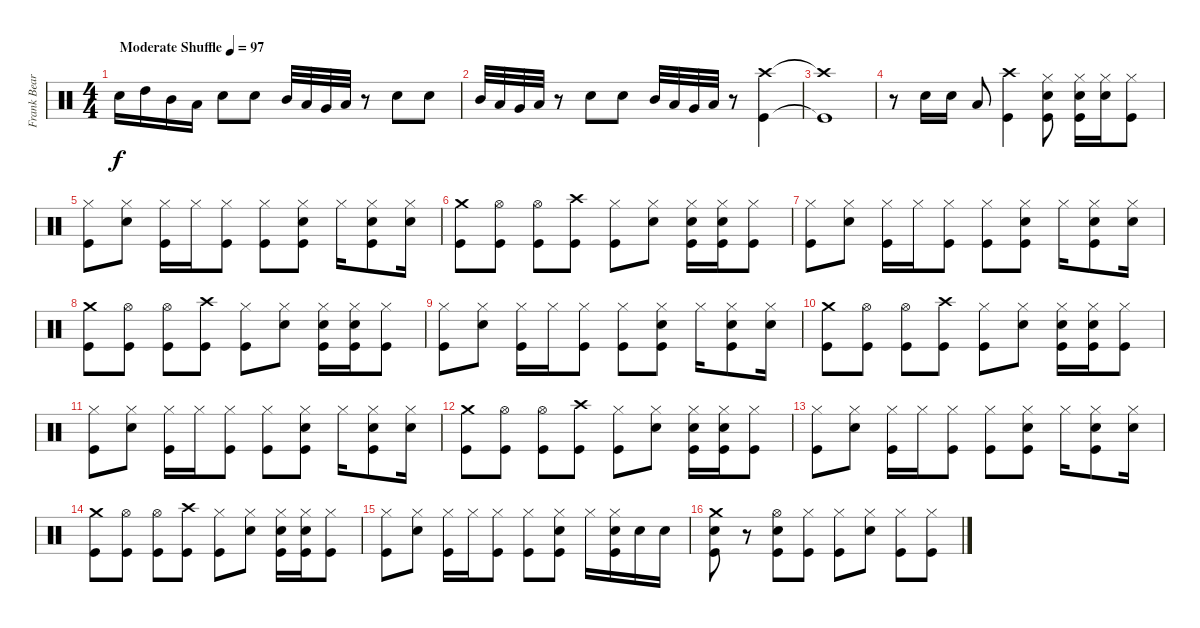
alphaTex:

\track ("Frank Beard Drums" "Frank Bear") {instrument percussion}
\staff {score}
\articulation defaults
\ts (4 4)
\tempo (97 "Moderate Shuffle")
\clef neutral
\ks c "Snare (hit) 2".16{dy f} "High Tom (hit)".16 "Mid Tom (hit)".16 "Low Tom (hit)".16 "Snare (hit) 2".8 "Snare (hit) 2".8 "Mid Tom (hit)".32 "Low Tom (hit)".32 "Very Low Tom (hit)".32 "Low Floor Tom (hit)".32
r.8 "Snare (hit) 2".8 "Snare (hit) 2".8 |
"Mid Tom (hit)".32 "Low Tom (hit)".32 "Very Low Tom (hit)".32 "Low Floor Tom (hit)".32 r.8 "Snare (hit) 2".8 "Snare (hit) 2".8 "Mid Tom (hit)".32 "Low Tom (hit)".32 "Very Low Tom (hit)".32 "Low Floor Tom (hit)".32 r.8 ("Crash high (hit)" "Kick (hit)").4 |
("Crash high (hit)"{t} "Kick (hit)"{t}).1 |
r.8 "Snare (hit) 2".16 "Snare (hit) 2".16 "Low Tom (hit)".8 ("Crash high (hit)" "Kick (hit)").4 ("Hi-Hat (closed)" "Snare (hit) 2" "Kick (hit)").8 ("Hi-Hat (closed)" "Snare (hit) 2" "Kick (hit)").16 ("Hi-Hat (closed)" "Snare (hit) 2").16 ("Hi-Hat (closed)" "Kick (hit)").8 |
("Hi-Hat (closed)" "Kick (hit)").8 ("Hi-Hat (closed)" "Snare (hit) 2").8 ("Hi-Hat (closed)" "Kick (hit)").16 "Hi-Hat (closed)".16 ("Hi-Hat (closed)" "Kick (hit)").8 ("Hi-Hat (closed)" "Kick (hit)").8 ("Hi-Hat (closed)" "Snare (hit) 2" "Kick (hit)").8 "Hi-Hat (closed)".16 ("Hi-Hat (closed)" "Snare (hit) 2" "Kick (hit)").8 ("Hi-Hat (closed)" "Snare (hit) 2").16 |
("Crash medium (hit)" "Kick (hit)").8 ("Hi-Hat (open)" "Kick (hit)").8 ("Hi-Hat (open)" "Kick (hit)").8 ("Crash high (hit)" "Kick (hit)").8 ("Hi-Hat (closed)" "Kick (hit)").8 ("Hi-Hat (closed)" "Snare (hit) 2").8 ("Hi-Hat (closed)" "Snare (hit) 2" "Kick (hit)").16 ("Hi-Hat (closed)" "Snare (hit) 2" "Kick (hit)").16 ("Hi-Hat (closed)" "Kick (hit)").8 |
("Hi-Hat (closed)" "Kick (hit)").8 ("Hi-Hat (closed)" "Snare (hit) 2").8 ("Hi-Hat (closed)" "Kick (hit)").16 "Hi-Hat (closed)".16 ("Hi-Hat (closed)" "Kick (hit)").8 ("Hi-Hat (closed)" "Kick (hit)").8 ("Hi-Hat (closed)" "Snare (hit) 2" "Kick (hit)").8 "Hi-Hat (closed)".16 ("Hi-Hat (closed)" "Snare (hit) 2" "Kick (hit)").8 ("Hi-Hat (closed)" "Snare (hit) 2").16 |
("Crash medium (hit)" "Kick (hit)").8 ("Hi-Hat (open)" "Kick (hit)").8 ("Hi-Hat (open)" "Kick (hit)").8 ("Crash high (hit)" "Kick (hit)").8 ("Hi-Hat (closed)" "Kick (hit)").8 ("Hi-Hat (closed)" "Snare (hit) 2").8 ("Hi-Hat (closed)" "Snare (hit) 2" "Kick (hit)").16 ("Hi-Hat (closed)" "Snare (hit) 2" "Kick (hit)").16 ("Hi-Hat (closed)" "Kick (hit)").8 |
("Hi-Hat (closed)" "Kick (hit)").8 ("Hi-Hat (closed)" "Snare (hit) 2").8 ("Hi-Hat (closed)" "Kick (hit)").16 "Hi-Hat (closed)".16 ("Hi-Hat (closed)" "Kick (hit)").8 ("Hi-Hat (closed)" "Kick (hit)").8 ("Hi-Hat (closed)" "Snare (hit) 2" "Kick (hit)").8 "Hi-Hat (closed)".16 ("Hi-Hat (closed)" "Snare (hit) 2" "Kick (hit)").8 ("Hi-Hat (closed)" "Snare (hit) 2").16 |
("Crash medium (hit)" "Kick (hit)").8 ("Hi-Hat (open)" "Kick (hit)").8 ("Hi-Hat (open)" "Kick (hit)").8 ("Crash high (hit)" "Kick (hit)").8 ("Hi-Hat (closed)" "Kick (hit)").8 ("Hi-Hat (closed)" "Snare (hit) 2").8 ("Hi-Hat (closed)" "Snare (hit) 2" "Kick (hit)").16 ("Hi-Hat (closed)" "Snare (hit) 2" "Kick (hit)").16 ("Hi-Hat (closed)" "Kick (hit)").8 |
("Hi-Hat (closed)" "Kick (hit)").8 ("Hi-Hat (closed)" "Snare (hit) 2").8 ("Hi-Hat (closed)" "Kick (hit)").16 "Hi-Hat (closed)".16 ("Hi-Hat (closed)" "Kick (hit)").8 ("Hi-Hat (closed)" "Kick (hit)").8 ("Hi-Hat (closed)" "Snare (hit) 2" "Kick (hit)").8 "Hi-Hat (closed)".16 ("Hi-Hat (closed)" "Snare (hit) 2" "Kick (hit)").8 ("Hi-Hat (closed)" "Snare (hit) 2").16 |
("Crash medium (hit)" "Kick (hit)").8 ("Hi-Hat (open)" "Kick (hit)").8 ("Hi-Hat (open)" "Kick (hit)").8 ("Crash high (hit)" "Kick (hit)").8 ("Hi-Hat (closed)" "Kick (hit)").8 ("Hi-Hat (closed)" "Snare (hit) 2").8 ("Hi-Hat (closed)" "Snare (hit) 2" "Kick (hit)").16 ("Hi-Hat (closed)" "Snare (hit) 2" "Kick (hit)").16 ("Hi-Hat (closed)" "Kick (hit)").8 |
("Hi-Hat (closed)" "Kick (hit)").8 ("Hi-Hat (closed)" "Snare (hit) 2").8 ("Hi-Hat (closed)" "Kick (hit)").16 "Hi-Hat (closed)".16 ("Hi-Hat (closed)" "Kick (hit)").8 ("Hi-Hat (closed)" "Kick (hit)").8 ("Hi-Hat (closed)" "Snare (hit) 2" "Kick (hit)").8 "Hi-Hat (closed)".16 ("Hi-Hat (closed)" "Snare (hit) 2" "Kick (hit)").8 ("Hi-Hat (closed)" "Snare (hit) 2").16 |
("Crash medium (hit)" "Kick (hit)").8 ("Hi-Hat (open)" "Kick (hit)").8 ("Hi-Hat (open)" "Kick (hit)").8 ("Crash high (hit)" "Kick (hit)").8 ("Hi-Hat (closed)" "Kick (hit)").8 ("Hi-Hat (closed)" "Snare (hit) 2").8 ("Hi-Hat (closed)" "Snare (hit) 2" "Kick (hit)").16 ("Hi-Hat (closed)" "Snare (hit) 2" "Kick (hit)").16 ("Hi-Hat (closed)" "Kick (hit)").8 |
("Hi-Hat (closed)" "Kick (hit)").8 ("Hi-Hat (closed)" "Snare (hit) 2").8 ("Hi-Hat (closed)" "Kick (hit)").16 "Hi-Hat (closed)".16 ("Hi-Hat (closed)" "Kick (hit)").8 ("Hi-Hat (closed)" "Kick (hit)").8 ("Hi-Hat (closed)" "Snare (hit) 2" "Kick (hit)").8 "Hi-Hat (closed)".16 ("Hi-Hat (closed)" "Snare (hit) 2" "Kick (hit)").16 "Snare (hit) 2".16 "Snare (hit) 2".16 |
("Crash medium (hit)" "Snare (hit) 2" "Kick (hit)").8 r.8 ("Hi-Hat (open)" "Snare (hit) 2" "Kick (hit)").8 ("Hi-Hat (closed)" "Kick (hit)").8 ("Hi-Hat (closed)" "Kick (hit)").8 ("Hi-Hat (closed)" "Snare (hit) 2").8 ("Hi-Hat (closed)" "Kick (hit)").8 ("Hi-Hat (closed)" "Kick (hit)").8
